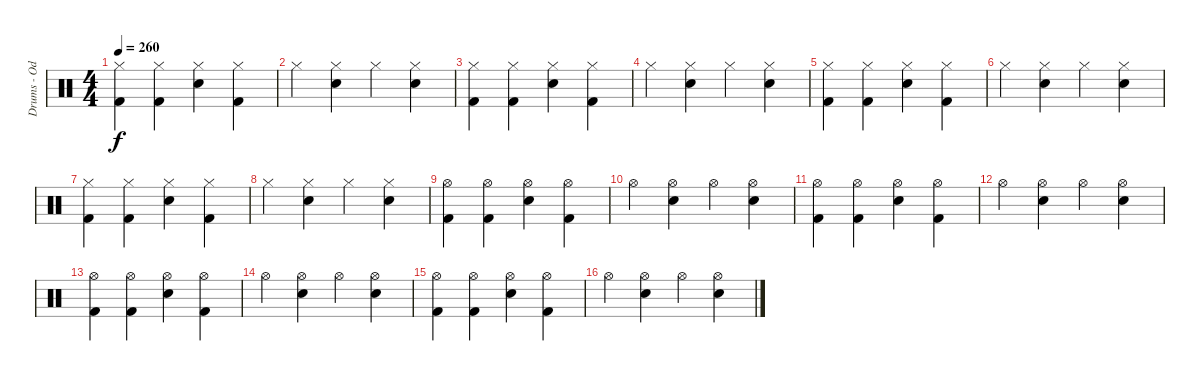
\track ("Drums - Oded Perach" "Drums - Od") {instrument percussion}
\staff {score}
\articulation defaults
\ts (4 4)
\tempo 260
\clef neutral
\ks c
("Hi-Hat (closed)" "Kick (hit) 2").4{dy f} ("Hi-Hat (closed)" "Kick (hit) 2").4 ("Hi-Hat (closed)" "Snare (hit) 2").4 ("Hi-Hat (closed)" "Kick (hit) 2").4 |
"Hi-Hat (closed)".4 ("Hi-Hat (closed)" "Snare (hit) 2").4 "Hi-Hat (closed)".4 ("Hi-Hat (closed)" "Snare (hit) 2").4 |
("Hi-Hat (closed)" "Kick (hit) 2").4 ("Hi-Hat (closed)" "Kick (hit) 2").4 ("Hi-Hat (closed)" "Snare (hit) 2").4 ("Hi-Hat (closed)" "Kick (hit) 2").4 |
"Hi-Hat (closed)".4 ("Hi-Hat (closed)" "Snare (hit) 2").4 "Hi-Hat (closed)".4 ("Hi-Hat (closed)" "Snare (hit) 2").4 |
("Hi-Hat (closed)" "Kick (hit) 2").4 ("Hi-Hat (closed)" "Kick (hit) 2").4 ("Hi-Hat (closed)" "Snare (hit) 2").4 ("Hi-Hat (closed)" "Kick (hit) 2").4 |
"Hi-Hat (closed)".4 ("Hi-Hat (closed)" "Snare (hit) 2").4 "Hi-Hat (closed)".4 ("Hi-Hat (closed)" "Snare (hit) 2").4 |
("Hi-Hat (closed)" "Kick (hit) 2").4 ("Hi-Hat (closed)" "Kick (hit) 2").4 ("Hi-Hat (closed)" "Snare (hit) 2").4 ("Hi-Hat (closed)" "Kick (hit) 2").4 |
"Hi-Hat (closed)".4 ("Hi-Hat (closed)" "Snare (hit) 2").4 "Hi-Hat (closed)".4 ("Hi-Hat (closed)" "Snare (hit) 2").4 |
("Hi-Hat (open)" "Kick (hit) 2").4 ("Hi-Hat (open)" "Kick (hit) 2").4 ("Hi-Hat (open)" "Snare (hit) 2").4 ("Hi-Hat (open)" "Kick (hit) 2").4 |
"Hi-Hat (open)".4 ("Hi-Hat (open)" "Snare (hit) 2").4 "Hi-Hat (open)".4 ("Hi-Hat (open)" "Snare (hit) 2").4 |
("Hi-Hat (open)" "Kick (hit) 2").4 ("Hi-Hat (open)" "Kick (hit) 2").4 ("Hi-Hat (open)" "Snare (hit) 2").4 ("Hi-Hat (open)" "Kick (hit) 2").4 |
"Hi-Hat (open)".4 ("Hi-Hat (open)" "Snare (hit) 2").4 "Hi-Hat (open)".4 ("Hi-Hat (open)" "Snare (hit) 2").4 |
("Hi-Hat (open)" "Kick (hit) 2").4 ("Hi-Hat (open)" "Kick (hit) 2").4 ("Hi-Hat (open)" "Snare (hit) 2").4 ("Hi-Hat (open)" "Kick (hit) 2").4 |
"Hi-Hat (open)".4 ("Hi-Hat (open)" "Snare (hit) 2").4 "Hi-Hat (open)".4 ("Hi-Hat (open)" "Snare (hit) 2").4 |
("Hi-Hat (open)" "Kick (hit) 2").4 ("Hi-Hat (open)" "Kick (hit) 2").4 ("Hi-Hat (open)" "Snare (hit) 2").4 ("Hi-Hat (open)" "Kick (hit) 2").4 |
"Hi-Hat (open)".4 ("Hi-Hat (open)" "Snare (hit) 2").4 "Hi-Hat (open)".4 ("Hi-Hat (open)" "Snare (hit) 2").4
